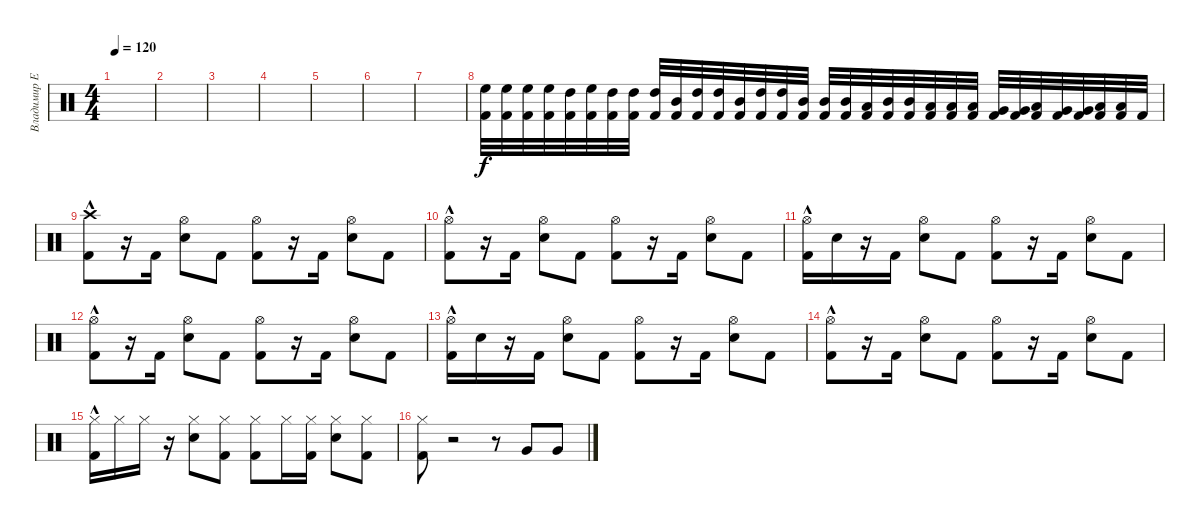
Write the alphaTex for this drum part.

\track ("Владимир Ермаков" "Владимир Е") {instrument percussion}
\staff {score}
\articulation defaults
\ts (4 4)
\tempo 120
\clef neutral
\ks c
|
|
|
|
|
|
|
("Kick (hit) 2" "High Floor Tom (hit)").32 ("Kick (hit) 2" "High Floor Tom (hit)").32 ("Kick (hit) 2" "High Floor Tom (hit)").32 ("Kick (hit) 2" "High Floor Tom (hit)").32 ("Kick (hit) 2" "High Tom (hit)").32 ("Kick (hit) 2" "High Floor Tom (hit)").32 ("Kick (hit) 2" "High Tom (hit)").32 ("Kick (hit) 2" "High Tom (hit)").32 ("Kick (hit) 2" "High Tom (hit)").32 ("Kick (hit) 2" "Mid Tom (hit)").32 ("Kick (hit) 2" "High Tom (hit)").32 ("Kick (hit) 2" "High Tom (hit)").32 ("Kick (hit) 2" "Mid Tom (hit)").32 ("Kick (hit) 2" "High Tom (hit)").32 ("Kick (hit) 2" "High Tom (hit)").32 ("Kick (hit) 2" "Mid Tom (hit)").32 ("Kick (hit) 2" "Mid Tom (hit)").32 ("Kick (hit) 2" "Mid Tom (hit)").32 ("Kick (hit) 2" "Low Tom (hit)").32 ("Kick (hit) 2" "Mid Tom (hit)").32 ("Kick (hit) 2" "Mid Tom (hit)").32 ("Kick (hit) 2" "Low Tom (hit)").32 ("Kick (hit) 2" "Low Tom (hit)").32 ("Kick (hit) 2" "Low Tom (hit)").32 ("Kick (hit) 2" "Very Low Tom (hit)").32 ("Kick (hit) 2" "Very Low Tom (hit)").32 ("Kick (hit) 2" "Low Tom (hit)").32 ("Kick (hit) 2" "Very Low Tom (hit)").32 ("Kick (hit) 2" "Very Low Tom (hit)").32 ("Kick (hit) 2" "Low Floor Tom (hit)").32 ("Kick (hit) 2" "Low Floor Tom (hit)").32 "Kick (hit) 2".32{dy f} |
("Crash high (hit)" "Kick (hit) 2"{hac}).8 r.16 "Kick (hit) 2".16 ("Hi-Hat (open)" "Electric Snare (hit)").8 "Kick (hit) 2".8 ("Hi-Hat (open)" "Kick (hit) 2").8 r.16 "Kick (hit) 2".16 ("Hi-Hat (open)" "Electric Snare (hit)").8 "Kick (hit) 2".8 |
("Hi-Hat (open)" "Kick (hit) 2"{hac}).8 r.16 "Kick (hit) 2".16 ("Hi-Hat (open)" "Electric Snare (hit)").8 "Kick (hit) 2".8 ("Hi-Hat (open)" "Kick (hit) 2").8 r.16 "Kick (hit) 2".16 ("Hi-Hat (open)" "Electric Snare (hit)").8 "Kick (hit) 2".8 |
("Hi-Hat (open)" "Kick (hit) 2"{hac}).16 "Electric Snare (hit)".16 r.16 "Kick (hit) 2".16 ("Hi-Hat (open)" "Electric Snare (hit)").8 "Kick (hit) 2".8 ("Hi-Hat (open)" "Kick (hit) 2").8 r.16 "Kick (hit) 2".16 ("Hi-Hat (open)" "Electric Snare (hit)").8 "Kick (hit) 2".8 |
("Hi-Hat (open)" "Kick (hit) 2"{hac}).8 r.16 "Kick (hit) 2".16 ("Hi-Hat (open)" "Electric Snare (hit)").8 "Kick (hit) 2".8 ("Hi-Hat (open)" "Kick (hit) 2").8 r.16 "Kick (hit) 2".16 ("Hi-Hat (open)" "Electric Snare (hit)").8 "Kick (hit) 2".8 |
("Hi-Hat (open)" "Kick (hit) 2"{hac}).16 "Electric Snare (hit)".16 r.16 "Kick (hit) 2".16 ("Hi-Hat (open)" "Electric Snare (hit)").8 "Kick (hit) 2".8 ("Hi-Hat (open)" "Kick (hit) 2").8 r.16 "Kick (hit) 2".16 ("Hi-Hat (open)" "Electric Snare (hit)").8 "Kick (hit) 2".8 |
("Hi-Hat (open)" "Kick (hit) 2"{hac}).8 r.16 "Kick (hit) 2".16 ("Hi-Hat (open)" "Electric Snare (hit)").8 "Kick (hit) 2".8 ("Hi-Hat (open)" "Kick (hit) 2").8 r.16 "Kick (hit) 2".16 ("Hi-Hat (open)" "Electric Snare (hit)").8 "Kick (hit) 2".8 |
("Hi-Hat (closed)" "Kick (hit) 2"{hac}).16 "Hi-Hat (closed)".16 "Hi-Hat (closed)".16 r.16 ("Hi-Hat (closed)" "Electric Snare (hit)").8 ("Hi-Hat (closed)" "Kick (hit) 2").8 ("Hi-Hat (closed)" "Kick (hit) 2").8 "Hi-Hat (closed)".16 ("Hi-Hat (closed)" "Kick (hit) 2").16 ("Hi-Hat (closed)" "Electric Snare (hit)").8 ("Hi-Hat (closed)" "Kick (hit) 2").8 |
("Hi-Hat (closed)" "Kick (hit) 2").8 r.2 r.8 "Very Low Tom (hit)".8 "Very Low Tom (hit)".8
